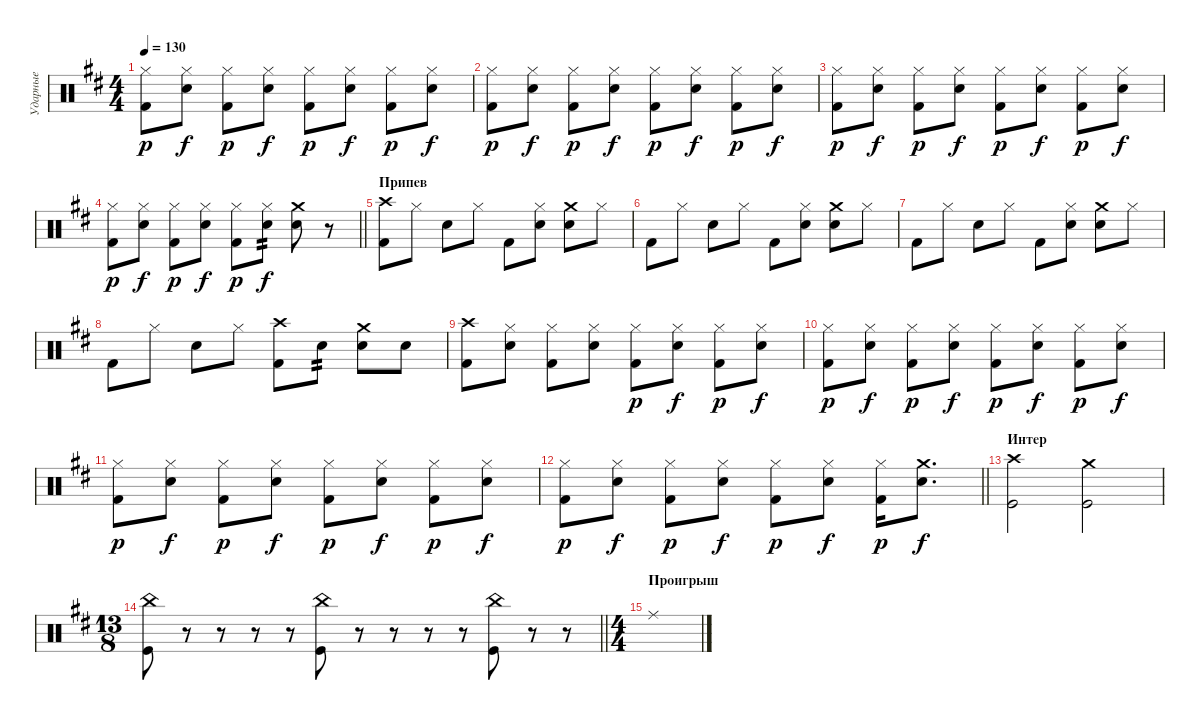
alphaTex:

\track ("Ударные" "Ударные") {instrument percussion}
\staff {score}
\articulation defaults
\ts (4 4)
\tempo 130
\clef neutral
\ks bminor
("Hi-Hat (closed)" "Kick (hit) 2").8{dy p} ("Hi-Hat (closed)" "Snare (hit) 2").8{dy f} ("Hi-Hat (closed)" "Kick (hit) 2").8{dy p} ("Hi-Hat (closed)" "Snare (hit) 2").8{dy f} ("Hi-Hat (closed)" "Kick (hit) 2").8{dy p} ("Hi-Hat (closed)" "Snare (hit) 2").8{dy f} ("Hi-Hat (closed)" "Kick (hit) 2").8{dy p} ("Hi-Hat (closed)" "Snare (hit) 2").8{dy f} |
("Hi-Hat (closed)" "Kick (hit) 2").8{dy p} ("Hi-Hat (closed)" "Snare (hit) 2").8{dy f} ("Hi-Hat (closed)" "Kick (hit) 2").8{dy p} ("Hi-Hat (closed)" "Snare (hit) 2").8{dy f} ("Hi-Hat (closed)" "Kick (hit) 2").8{dy p} ("Hi-Hat (closed)" "Snare (hit) 2").8{dy f} ("Hi-Hat (closed)" "Kick (hit) 2").8{dy p} ("Hi-Hat (closed)" "Snare (hit) 2").8{dy f} |
("Hi-Hat (closed)" "Kick (hit) 2").8{dy p} ("Hi-Hat (closed)" "Snare (hit) 2").8{dy f} ("Hi-Hat (closed)" "Kick (hit) 2").8{dy p} ("Hi-Hat (closed)" "Snare (hit) 2").8{dy f} ("Hi-Hat (closed)" "Kick (hit) 2").8{dy p} ("Hi-Hat (closed)" "Snare (hit) 2").8{dy f} ("Hi-Hat (closed)" "Kick (hit) 2").8{dy p} ("Hi-Hat (closed)" "Snare (hit) 2").8{dy f} |
\barLineRight lightlight
("Hi-Hat (closed)" "Kick (hit) 2").8{dy p} ("Hi-Hat (closed)" "Snare (hit) 2").8{dy f} ("Hi-Hat (closed)" "Kick (hit) 2").8{dy p} ("Hi-Hat (closed)" "Snare (hit) 2").8{dy f} ("Hi-Hat (closed)" "Kick (hit) 2").8{dy p} ("Hi-Hat (closed)" "Snare (hit) 2").8{tp 2 dy f} ("Crash medium (hit)" "Snare (hit) 2").8 r.8 |
\section ("" "Припев")
("Crash high (hit)" "Kick (hit) 2").8 "Hi-Hat (closed)".8 "Snare (hit) 2".8 "Hi-Hat (closed)".8 "Kick (hit) 2".8 ("Hi-Hat (closed)" "Snare (hit) 2").8 ("Crash medium (hit)" "Snare (hit) 2").8 "Hi-Hat (closed)".8 |
"Kick (hit) 2".8 "Hi-Hat (closed)".8 "Snare (hit) 2".8 "Hi-Hat (closed)".8 "Kick (hit) 2".8 ("Hi-Hat (closed)" "Snare (hit) 2").8 ("Crash medium (hit)" "Snare (hit) 2").8 "Hi-Hat (closed)".8 |
"Kick (hit) 2".8 "Hi-Hat (closed)".8 "Snare (hit) 2".8 "Hi-Hat (closed)".8 "Kick (hit) 2".8 ("Hi-Hat (closed)" "Snare (hit) 2").8 ("Crash medium (hit)" "Snare (hit) 2").8 "Hi-Hat (closed)".8 |
"Kick (hit) 2".8 "Hi-Hat (closed)".8 "Snare (hit) 2".8 "Hi-Hat (closed)".8 ("Crash high (hit)" "Kick (hit) 2").8 "Snare (hit) 2".8{tp 2} ("Crash medium (hit)" "Snare (hit) 2").8 "Snare (hit) 2".8 |
("Crash high (hit)" "Kick (hit) 2").8 ("Hi-Hat (closed)" "Snare (hit) 2").8 ("Hi-Hat (closed)" "Kick (hit) 2").8 ("Hi-Hat (closed)" "Snare (hit) 2").8 ("Hi-Hat (closed)" "Kick (hit) 2").8{dy p} ("Hi-Hat (closed)" "Snare (hit) 2").8{dy f} ("Hi-Hat (closed)" "Kick (hit) 2").8{dy p} ("Hi-Hat (closed)" "Snare (hit) 2").8{dy f} |
("Hi-Hat (closed)" "Kick (hit) 2").8{dy p} ("Hi-Hat (closed)" "Snare (hit) 2").8{dy f} ("Hi-Hat (closed)" "Kick (hit) 2").8{dy p} ("Hi-Hat (closed)" "Snare (hit) 2").8{dy f} ("Hi-Hat (closed)" "Kick (hit) 2").8{dy p} ("Hi-Hat (closed)" "Snare (hit) 2").8{dy f} ("Hi-Hat (closed)" "Kick (hit) 2").8{dy p} ("Hi-Hat (closed)" "Snare (hit) 2").8{dy f} |
("Hi-Hat (closed)" "Kick (hit) 2").8{dy p} ("Hi-Hat (closed)" "Snare (hit) 2").8{dy f} ("Hi-Hat (closed)" "Kick (hit) 2").8{dy p} ("Hi-Hat (closed)" "Snare (hit) 2").8{dy f} ("Hi-Hat (closed)" "Kick (hit) 2").8{dy p} ("Hi-Hat (closed)" "Snare (hit) 2").8{dy f} ("Hi-Hat (closed)" "Kick (hit) 2").8{dy p} ("Hi-Hat (closed)" "Snare (hit) 2").8{dy f} |
\barLineRight lightlight
("Hi-Hat (closed)" "Kick (hit) 2").8{dy p} ("Hi-Hat (closed)" "Snare (hit) 2").8{dy f} ("Hi-Hat (closed)" "Kick (hit) 2").8{dy p} ("Hi-Hat (closed)" "Snare (hit) 2").8{dy f} ("Hi-Hat (closed)" "Kick (hit) 2").8{dy p} ("Hi-Hat (closed)" "Snare (hit) 2").8{dy f} ("Hi-Hat (closed)" "Kick (hit) 2").16{dy p} ("Crash medium (hit)" "Snare (hit) 2").8{d dy f} |
\section ("" "Интер")
("Crash high (hit)" "Kick (hit)").2 ("Crash medium (hit)" "Kick (hit)").2 |
\ts (13 8)
\barLineRight lightlight
("China (hit)" "Kick (hit)").8 r.8 r.8 r.8 r.8 ("China (hit)" "Kick (hit)").8 r.8 r.8 r.8 r.8 ("China (hit)" "Kick (hit)").8 r.8 r.8 |
\ts (4 4)
\section ("" "Проигрыш")
"Ride (middle)".1
